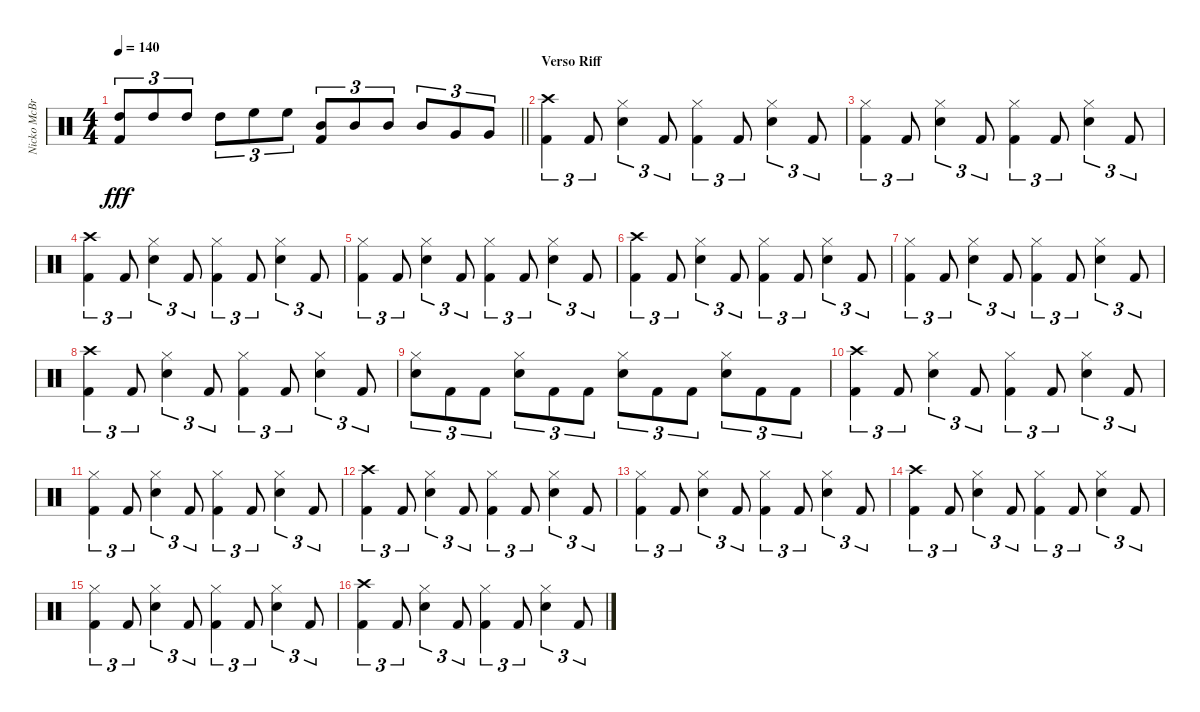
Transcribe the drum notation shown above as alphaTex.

\track ("Nicko McBrain" "Nicko McBr") {instrument percussion}
\staff {score}
\articulation defaults
\ts (4 4)
\tempo 140
\clef neutral
\barLineRight lightlight
\ks c
("Kick (hit) 2" "High Tom (hit)").8{tu (3 2) dy fff} "High Tom (hit)".8{tu (3 2)} "High Tom (hit)".8{tu (3 2)} "High Tom (hit)".8{tu (3 2)} "High Floor Tom (hit)".8{tu (3 2)} "High Floor Tom (hit)".8{tu (3 2)} ("Mid Tom (hit)" "Kick (hit) 2").8{tu (3 2)} "Mid Tom (hit)".8{tu (3 2)} "Mid Tom (hit)".8{tu (3 2)} "Mid Tom (hit)".8{tu (3 2)} "Very Low Tom (hit)".8{tu (3 2)} "Very Low Tom (hit)".8{tu (3 2)} |
\section ("" "Verso Riff")
("Crash high (hit)" "Kick (hit) 2").4{tu (3 2)} "Kick (hit) 2".8{tu (3 2)} ("Hi-Hat (closed)" "Snare (hit) 2").4{tu (3 2)} "Kick (hit) 2".8{tu (3 2)} ("Kick (hit) 2" "Hi-Hat (closed)").4{tu (3 2)} "Kick (hit) 2".8{tu (3 2)} ("Hi-Hat (closed)" "Snare (hit) 2").4{tu (3 2)} "Kick (hit) 2".8{tu (3 2)} |
("Kick (hit) 2" "Hi-Hat (closed)").4{tu (3 2)} "Kick (hit) 2".8{tu (3 2)} ("Hi-Hat (closed)" "Snare (hit) 2").4{tu (3 2)} "Kick (hit) 2".8{tu (3 2)} ("Kick (hit) 2" "Hi-Hat (closed)").4{tu (3 2)} "Kick (hit) 2".8{tu (3 2)} ("Hi-Hat (closed)" "Snare (hit) 2").4{tu (3 2)} "Kick (hit) 2".8{tu (3 2)} |
("Crash high (hit)" "Kick (hit) 2").4{tu (3 2)} "Kick (hit) 2".8{tu (3 2)} ("Hi-Hat (closed)" "Snare (hit) 2").4{tu (3 2)} "Kick (hit) 2".8{tu (3 2)} ("Kick (hit) 2" "Hi-Hat (closed)").4{tu (3 2)} "Kick (hit) 2".8{tu (3 2)} ("Hi-Hat (closed)" "Snare (hit) 2").4{tu (3 2)} "Kick (hit) 2".8{tu (3 2)} |
("Kick (hit) 2" "Hi-Hat (closed)").4{tu (3 2)} "Kick (hit) 2".8{tu (3 2)} ("Hi-Hat (closed)" "Snare (hit) 2").4{tu (3 2)} "Kick (hit) 2".8{tu (3 2)} ("Kick (hit) 2" "Hi-Hat (closed)").4{tu (3 2)} "Kick (hit) 2".8{tu (3 2)} ("Hi-Hat (closed)" "Snare (hit) 2").4{tu (3 2)} "Kick (hit) 2".8{tu (3 2)} |
("Crash high (hit)" "Kick (hit) 2").4{tu (3 2)} "Kick (hit) 2".8{tu (3 2)} ("Hi-Hat (closed)" "Snare (hit) 2").4{tu (3 2)} "Kick (hit) 2".8{tu (3 2)} ("Kick (hit) 2" "Hi-Hat (closed)").4{tu (3 2)} "Kick (hit) 2".8{tu (3 2)} ("Hi-Hat (closed)" "Snare (hit) 2").4{tu (3 2)} "Kick (hit) 2".8{tu (3 2)} |
("Kick (hit) 2" "Hi-Hat (closed)").4{tu (3 2)} "Kick (hit) 2".8{tu (3 2)} ("Hi-Hat (closed)" "Snare (hit) 2").4{tu (3 2)} "Kick (hit) 2".8{tu (3 2)} ("Kick (hit) 2" "Hi-Hat (closed)").4{tu (3 2)} "Kick (hit) 2".8{tu (3 2)} ("Hi-Hat (closed)" "Snare (hit) 2").4{tu (3 2)} "Kick (hit) 2".8{tu (3 2)} |
("Crash high (hit)" "Kick (hit) 2").4{tu (3 2)} "Kick (hit) 2".8{tu (3 2)} ("Hi-Hat (closed)" "Snare (hit) 2").4{tu (3 2)} "Kick (hit) 2".8{tu (3 2)} ("Kick (hit) 2" "Hi-Hat (closed)").4{tu (3 2)} "Kick (hit) 2".8{tu (3 2)} ("Hi-Hat (closed)" "Snare (hit) 2").4{tu (3 2)} "Kick (hit) 2".8{tu (3 2)} |
("Hi-Hat (closed)" "Snare (hit) 2").8{tu (3 2)} "Kick (hit) 2".8{tu (3 2)} "Kick (hit) 2".8{tu (3 2)} ("Hi-Hat (closed)" "Snare (hit) 2").8{tu (3 2)} "Kick (hit) 2".8{tu (3 2)} "Kick (hit) 2".8{tu (3 2)} ("Hi-Hat (closed)" "Snare (hit) 2").8{tu (3 2)} "Kick (hit) 2".8{tu (3 2)} "Kick (hit) 2".8{tu (3 2)} ("Hi-Hat (closed)" "Snare (hit) 2").8{tu (3 2)} "Kick (hit) 2".8{tu (3 2)} "Kick (hit) 2".8{tu (3 2)} |
("Crash high (hit)" "Kick (hit) 2").4{tu (3 2)} "Kick (hit) 2".8{tu (3 2)} ("Hi-Hat (closed)" "Snare (hit) 2").4{tu (3 2)} "Kick (hit) 2".8{tu (3 2)} ("Kick (hit) 2" "Hi-Hat (closed)").4{tu (3 2)} "Kick (hit) 2".8{tu (3 2)} ("Hi-Hat (closed)" "Snare (hit) 2").4{tu (3 2)} "Kick (hit) 2".8{tu (3 2)} |
("Kick (hit) 2" "Hi-Hat (closed)").4{tu (3 2)} "Kick (hit) 2".8{tu (3 2)} ("Hi-Hat (closed)" "Snare (hit) 2").4{tu (3 2)} "Kick (hit) 2".8{tu (3 2)} ("Kick (hit) 2" "Hi-Hat (closed)").4{tu (3 2)} "Kick (hit) 2".8{tu (3 2)} ("Hi-Hat (closed)" "Snare (hit) 2").4{tu (3 2)} "Kick (hit) 2".8{tu (3 2)} |
("Crash high (hit)" "Kick (hit) 2").4{tu (3 2)} "Kick (hit) 2".8{tu (3 2)} ("Hi-Hat (closed)" "Snare (hit) 2").4{tu (3 2)} "Kick (hit) 2".8{tu (3 2)} ("Kick (hit) 2" "Hi-Hat (closed)").4{tu (3 2)} "Kick (hit) 2".8{tu (3 2)} ("Hi-Hat (closed)" "Snare (hit) 2").4{tu (3 2)} "Kick (hit) 2".8{tu (3 2)} |
("Kick (hit) 2" "Hi-Hat (closed)").4{tu (3 2)} "Kick (hit) 2".8{tu (3 2)} ("Hi-Hat (closed)" "Snare (hit) 2").4{tu (3 2)} "Kick (hit) 2".8{tu (3 2)} ("Kick (hit) 2" "Hi-Hat (closed)").4{tu (3 2)} "Kick (hit) 2".8{tu (3 2)} ("Hi-Hat (closed)" "Snare (hit) 2").4{tu (3 2)} "Kick (hit) 2".8{tu (3 2)} |
("Crash high (hit)" "Kick (hit) 2").4{tu (3 2)} "Kick (hit) 2".8{tu (3 2)} ("Hi-Hat (closed)" "Snare (hit) 2").4{tu (3 2)} "Kick (hit) 2".8{tu (3 2)} ("Kick (hit) 2" "Hi-Hat (closed)").4{tu (3 2)} "Kick (hit) 2".8{tu (3 2)} ("Hi-Hat (closed)" "Snare (hit) 2").4{tu (3 2)} "Kick (hit) 2".8{tu (3 2)} |
("Kick (hit) 2" "Hi-Hat (closed)").4{tu (3 2)} "Kick (hit) 2".8{tu (3 2)} ("Hi-Hat (closed)" "Snare (hit) 2").4{tu (3 2)} "Kick (hit) 2".8{tu (3 2)} ("Kick (hit) 2" "Hi-Hat (closed)").4{tu (3 2)} "Kick (hit) 2".8{tu (3 2)} ("Hi-Hat (closed)" "Snare (hit) 2").4{tu (3 2)} "Kick (hit) 2".8{tu (3 2)} |
("Crash high (hit)" "Kick (hit) 2").4{tu (3 2)} "Kick (hit) 2".8{tu (3 2)} ("Hi-Hat (closed)" "Snare (hit) 2").4{tu (3 2)} "Kick (hit) 2".8{tu (3 2)} ("Kick (hit) 2" "Hi-Hat (closed)").4{tu (3 2)} "Kick (hit) 2".8{tu (3 2)} ("Hi-Hat (closed)" "Snare (hit) 2").4{tu (3 2)} "Kick (hit) 2".8{tu (3 2)}
